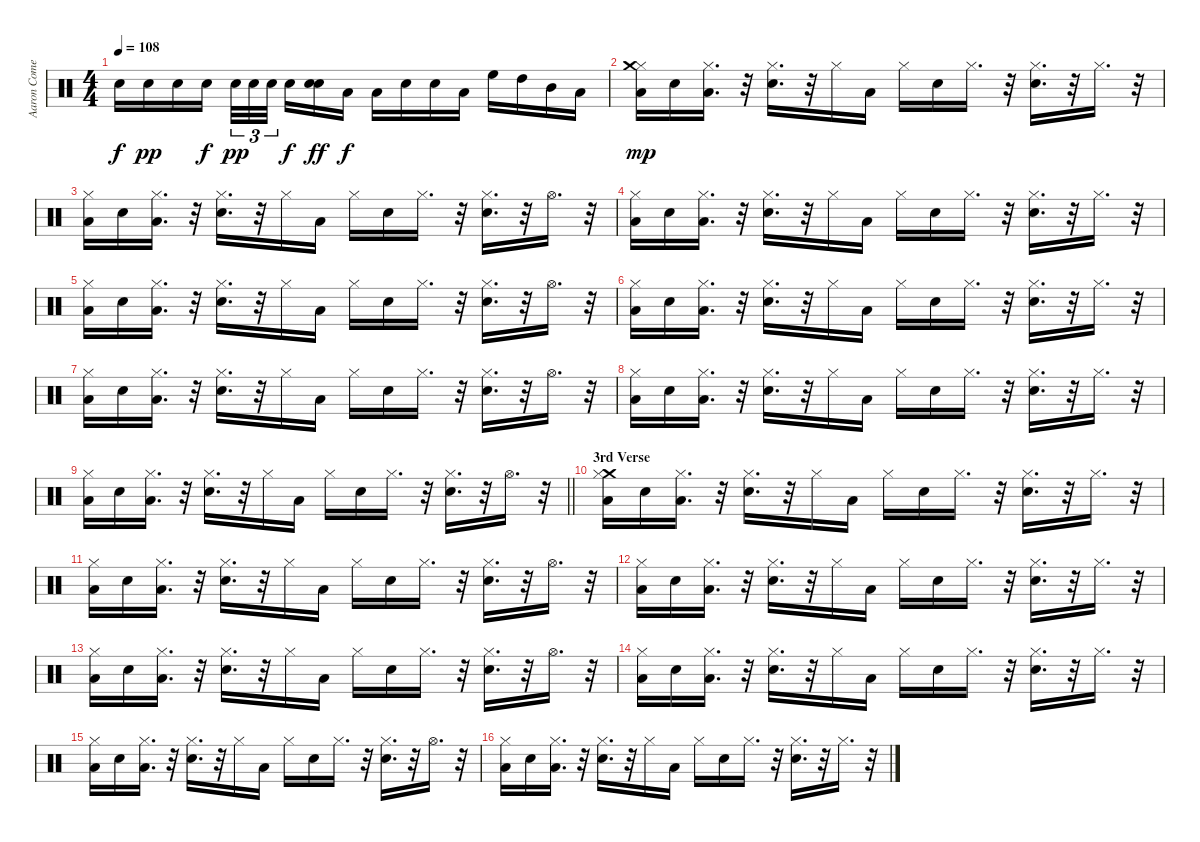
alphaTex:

\track ("Aaron Comess" "Aaron Come") {instrument percussion}
\staff {score}
\articulation defaults
\ts (4 4)
\tempo 108
\clef neutral
\ks c "Snare (hit) 2".16{dy f} "Snare (hit) 2".16{dy pp} "Snare (hit) 2".16 "Snare (hit) 2".16{dy f} "Snare (hit) 2".32{tu (3 2) dy pp} "Snare (hit) 2".32{tu (3 2)} "Snare (hit) 2".32{tu (3 2) beam splitsecondary} "Snare (hit) 2".16{dy f}
("Snare (hit) 2" "Electric Snare (hit)").16{dy ff} "Low Tom (hit)".16{dy f} "Low Tom (hit)".16 "Snare (hit) 2".16 "Snare (hit) 2".16 "Low Tom (hit)".16 "High Floor Tom (hit)".16 "High Tom (hit)".16 "Mid Tom (hit)".16 "Low Tom (hit)".16 |
("Low Tom (hit)" "Hi-Hat (closed)" "Crash medium (hit)").16{dy mp} "Electric Snare (hit)".16 ("Low Tom (hit)" "Hi-Hat (closed)").16{d} r.32 ("Snare (hit) 2" "Hi-Hat (closed)").16{d} r.32 "Hi-Hat (closed)".16 "Low Tom (hit)".16 "Hi-Hat (closed)".16 "Snare (hit) 2".16 "Hi-Hat (closed)".16{d} r.32 ("Snare (hit) 2" "Hi-Hat (closed)").16{d} r.32 "Hi-Hat (closed)".16{d} r.32 |
("Low Tom (hit)" "Hi-Hat (closed)").16 "Electric Snare (hit)".16 ("Low Tom (hit)" "Hi-Hat (closed)").16{d} r.32 ("Snare (hit) 2" "Hi-Hat (closed)").16{d} r.32 "Hi-Hat (closed)".16 "Low Tom (hit)".16 "Hi-Hat (closed)".16 "Snare (hit) 2".16 "Hi-Hat (closed)".16{d} r.32 ("Snare (hit) 2" "Hi-Hat (closed)").16{d} r.32 "Hi-Hat (open)".16{d} r.32 |
("Low Tom (hit)" "Hi-Hat (closed)").16 "Electric Snare (hit)".16 ("Low Tom (hit)" "Hi-Hat (closed)").16{d} r.32 ("Snare (hit) 2" "Hi-Hat (closed)").16{d} r.32 "Hi-Hat (closed)".16 "Low Tom (hit)".16 "Hi-Hat (closed)".16 "Snare (hit) 2".16 "Hi-Hat (closed)".16{d} r.32 ("Snare (hit) 2" "Hi-Hat (closed)").16{d} r.32 "Hi-Hat (closed)".16{d} r.32 |
("Low Tom (hit)" "Hi-Hat (closed)").16 "Electric Snare (hit)".16 ("Low Tom (hit)" "Hi-Hat (closed)").16{d} r.32 ("Snare (hit) 2" "Hi-Hat (closed)").16{d} r.32 "Hi-Hat (closed)".16 "Low Tom (hit)".16 "Hi-Hat (closed)".16 "Snare (hit) 2".16 "Hi-Hat (closed)".16{d} r.32 ("Snare (hit) 2" "Hi-Hat (closed)").16{d} r.32 "Hi-Hat (open)".16{d} r.32 |
("Low Tom (hit)" "Hi-Hat (closed)").16 "Electric Snare (hit)".16 ("Low Tom (hit)" "Hi-Hat (closed)").16{d} r.32 ("Snare (hit) 2" "Hi-Hat (closed)").16{d} r.32 "Hi-Hat (closed)".16 "Low Tom (hit)".16 "Hi-Hat (closed)".16 "Snare (hit) 2".16 "Hi-Hat (closed)".16{d} r.32 ("Snare (hit) 2" "Hi-Hat (closed)").16{d} r.32 "Hi-Hat (closed)".16{d} r.32 |
("Low Tom (hit)" "Hi-Hat (closed)").16 "Electric Snare (hit)".16 ("Low Tom (hit)" "Hi-Hat (closed)").16{d} r.32 ("Snare (hit) 2" "Hi-Hat (closed)").16{d} r.32 "Hi-Hat (closed)".16 "Low Tom (hit)".16 "Hi-Hat (closed)".16 "Snare (hit) 2".16 "Hi-Hat (closed)".16{d} r.32 ("Snare (hit) 2" "Hi-Hat (closed)").16{d} r.32 "Hi-Hat (open)".16{d} r.32 |
("Low Tom (hit)" "Hi-Hat (closed)").16 "Electric Snare (hit)".16 ("Low Tom (hit)" "Hi-Hat (closed)").16{d} r.32 ("Snare (hit) 2" "Hi-Hat (closed)").16{d} r.32 "Hi-Hat (closed)".16 "Low Tom (hit)".16 "Hi-Hat (closed)".16 "Snare (hit) 2".16 "Hi-Hat (closed)".16{d} r.32 ("Snare (hit) 2" "Hi-Hat (closed)").16{d} r.32 "Hi-Hat (closed)".16{d} r.32 |
\barLineRight lightlight
("Low Tom (hit)" "Hi-Hat (closed)").16 "Electric Snare (hit)".16 ("Low Tom (hit)" "Hi-Hat (closed)").16{d} r.32 ("Snare (hit) 2" "Hi-Hat (closed)").16{d} r.32 "Hi-Hat (closed)".16 "Low Tom (hit)".16 "Hi-Hat (closed)".16 "Snare (hit) 2".16 "Hi-Hat (closed)".16{d} r.32 ("Snare (hit) 2" "Hi-Hat (closed)").16{d} r.32 "Hi-Hat (open)".16{d} r.32 |
\section ("" "3rd Verse")
("Crash medium (hit)" "Low Tom (hit)" "Hi-Hat (closed)").16 "Electric Snare (hit)".16 ("Low Tom (hit)" "Hi-Hat (closed)").16{d} r.32 ("Snare (hit) 2" "Hi-Hat (closed)").16{d} r.32 "Hi-Hat (closed)".16 "Low Tom (hit)".16 "Hi-Hat (closed)".16 "Snare (hit) 2".16 "Hi-Hat (closed)".16{d} r.32 ("Snare (hit) 2" "Hi-Hat (closed)").16{d} r.32 "Hi-Hat (closed)".16{d} r.32 |
("Low Tom (hit)" "Hi-Hat (closed)").16 "Electric Snare (hit)".16 ("Low Tom (hit)" "Hi-Hat (closed)").16{d} r.32 ("Snare (hit) 2" "Hi-Hat (closed)").16{d} r.32 "Hi-Hat (closed)".16 "Low Tom (hit)".16 "Hi-Hat (closed)".16 "Snare (hit) 2".16 "Hi-Hat (closed)".16{d} r.32 ("Snare (hit) 2" "Hi-Hat (closed)").16{d} r.32 "Hi-Hat (open)".16{d} r.32 |
("Low Tom (hit)" "Hi-Hat (closed)").16 "Electric Snare (hit)".16 ("Low Tom (hit)" "Hi-Hat (closed)").16{d} r.32 ("Snare (hit) 2" "Hi-Hat (closed)").16{d} r.32 "Hi-Hat (closed)".16 "Low Tom (hit)".16 "Hi-Hat (closed)".16 "Snare (hit) 2".16 "Hi-Hat (closed)".16{d} r.32 ("Snare (hit) 2" "Hi-Hat (closed)").16{d} r.32 "Hi-Hat (closed)".16{d} r.32 |
("Low Tom (hit)" "Hi-Hat (closed)").16 "Electric Snare (hit)".16 ("Low Tom (hit)" "Hi-Hat (closed)").16{d} r.32 ("Snare (hit) 2" "Hi-Hat (closed)").16{d} r.32 "Hi-Hat (closed)".16 "Low Tom (hit)".16 "Hi-Hat (closed)".16 "Snare (hit) 2".16 "Hi-Hat (closed)".16{d} r.32 ("Snare (hit) 2" "Hi-Hat (closed)").16{d} r.32 "Hi-Hat (open)".16{d} r.32 |
("Low Tom (hit)" "Hi-Hat (closed)").16 "Electric Snare (hit)".16 ("Low Tom (hit)" "Hi-Hat (closed)").16{d} r.32 ("Snare (hit) 2" "Hi-Hat (closed)").16{d} r.32 "Hi-Hat (closed)".16 "Low Tom (hit)".16 "Hi-Hat (closed)".16 "Snare (hit) 2".16 "Hi-Hat (closed)".16{d} r.32 ("Snare (hit) 2" "Hi-Hat (closed)").16{d} r.32 "Hi-Hat (closed)".16{d} r.32 |
("Low Tom (hit)" "Hi-Hat (closed)").16 "Electric Snare (hit)".16 ("Low Tom (hit)" "Hi-Hat (closed)").16{d} r.32 ("Snare (hit) 2" "Hi-Hat (closed)").16{d} r.32 "Hi-Hat (closed)".16 "Low Tom (hit)".16 "Hi-Hat (closed)".16 "Snare (hit) 2".16 "Hi-Hat (closed)".16{d} r.32 ("Snare (hit) 2" "Hi-Hat (closed)").16{d} r.32 "Hi-Hat (open)".16{d} r.32 |
("Low Tom (hit)" "Hi-Hat (closed)").16 "Electric Snare (hit)".16 ("Low Tom (hit)" "Hi-Hat (closed)").16{d} r.32 ("Snare (hit) 2" "Hi-Hat (closed)").16{d} r.32 "Hi-Hat (closed)".16 "Low Tom (hit)".16 "Hi-Hat (closed)".16 "Snare (hit) 2".16 "Hi-Hat (closed)".16{d} r.32 ("Snare (hit) 2" "Hi-Hat (closed)").16{d} r.32 "Hi-Hat (closed)".16{d} r.32
